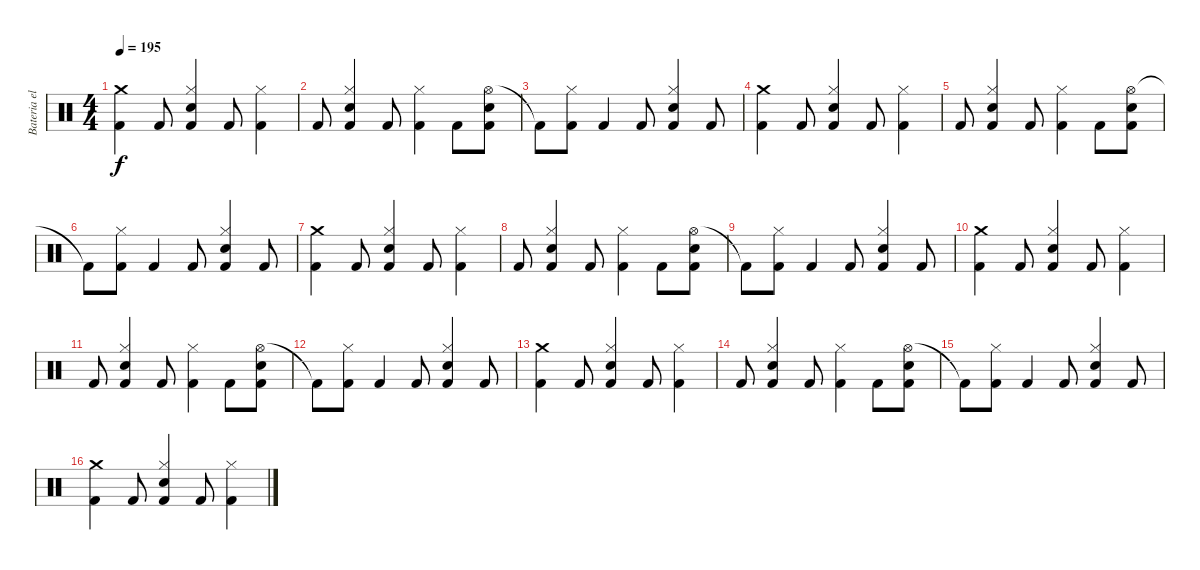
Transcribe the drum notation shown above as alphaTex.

\track ("Bateria electrica" "Bateria el") {instrument percussion}
\staff {score}
\articulation defaults
\ts (4 4)
\tempo 195
\clef neutral
\ks c
("Crash medium (hit)" "Kick (hit) 2").4{dy f} "Kick (hit) 2".8 ("Hi-Hat (closed)" "Kick (hit) 2" "Snare (hit) 2").4 "Kick (hit) 2".8 ("Hi-Hat (closed)" "Kick (hit) 2").4 |
"Kick (hit) 2".8 ("Hi-Hat (closed)" "Kick (hit) 2" "Snare (hit) 2").4 "Kick (hit) 2".8 ("Hi-Hat (closed)" "Kick (hit) 2").4 "Kick (hit) 2".8 ("Hi-Hat (open)" "Kick (hit) 2" "Snare (hit) 2").8 |
"Kick (hit) 2"{t}.8 ("Hi-Hat (closed)" "Kick (hit) 2").8 "Kick (hit) 2".4 "Kick (hit) 2".8 ("Hi-Hat (closed)" "Kick (hit) 2" "Snare (hit) 2").4 "Kick (hit) 2".8 |
("Crash medium (hit)" "Kick (hit) 2").4 "Kick (hit) 2".8 ("Hi-Hat (closed)" "Kick (hit) 2" "Snare (hit) 2").4 "Kick (hit) 2".8 ("Hi-Hat (closed)" "Kick (hit) 2").4 |
"Kick (hit) 2".8 ("Hi-Hat (closed)" "Kick (hit) 2" "Snare (hit) 2").4 "Kick (hit) 2".8 ("Hi-Hat (closed)" "Kick (hit) 2").4 "Kick (hit) 2".8 ("Hi-Hat (open)" "Kick (hit) 2" "Snare (hit) 2").8 |
"Kick (hit) 2"{t}.8 ("Hi-Hat (closed)" "Kick (hit) 2").8 "Kick (hit) 2".4 "Kick (hit) 2".8 ("Hi-Hat (closed)" "Kick (hit) 2" "Snare (hit) 2").4 "Kick (hit) 2".8 |
("Crash medium (hit)" "Kick (hit) 2").4 "Kick (hit) 2".8 ("Hi-Hat (closed)" "Kick (hit) 2" "Snare (hit) 2").4 "Kick (hit) 2".8 ("Hi-Hat (closed)" "Kick (hit) 2").4 |
"Kick (hit) 2".8 ("Hi-Hat (closed)" "Kick (hit) 2" "Snare (hit) 2").4 "Kick (hit) 2".8 ("Hi-Hat (closed)" "Kick (hit) 2").4 "Kick (hit) 2".8 ("Hi-Hat (open)" "Kick (hit) 2" "Snare (hit) 2").8 |
"Kick (hit) 2"{t}.8 ("Hi-Hat (closed)" "Kick (hit) 2").8 "Kick (hit) 2".4 "Kick (hit) 2".8 ("Hi-Hat (closed)" "Kick (hit) 2" "Snare (hit) 2").4 "Kick (hit) 2".8 |
("Crash medium (hit)" "Kick (hit) 2").4 "Kick (hit) 2".8 ("Hi-Hat (closed)" "Kick (hit) 2" "Snare (hit) 2").4 "Kick (hit) 2".8 ("Hi-Hat (closed)" "Kick (hit) 2").4 |
"Kick (hit) 2".8 ("Hi-Hat (closed)" "Kick (hit) 2" "Snare (hit) 2").4 "Kick (hit) 2".8 ("Hi-Hat (closed)" "Kick (hit) 2").4 "Kick (hit) 2".8 ("Hi-Hat (open)" "Kick (hit) 2" "Snare (hit) 2").8 |
"Kick (hit) 2"{t}.8 ("Hi-Hat (closed)" "Kick (hit) 2").8 "Kick (hit) 2".4 "Kick (hit) 2".8 ("Hi-Hat (closed)" "Kick (hit) 2" "Snare (hit) 2").4 "Kick (hit) 2".8 |
("Crash medium (hit)" "Kick (hit) 2").4 "Kick (hit) 2".8 ("Hi-Hat (closed)" "Kick (hit) 2" "Snare (hit) 2").4 "Kick (hit) 2".8 ("Hi-Hat (closed)" "Kick (hit) 2").4 |
"Kick (hit) 2".8 ("Hi-Hat (closed)" "Kick (hit) 2" "Snare (hit) 2").4 "Kick (hit) 2".8 ("Hi-Hat (closed)" "Kick (hit) 2").4 "Kick (hit) 2".8 ("Hi-Hat (open)" "Kick (hit) 2" "Snare (hit) 2").8 |
"Kick (hit) 2"{t}.8 ("Hi-Hat (closed)" "Kick (hit) 2").8 "Kick (hit) 2".4 "Kick (hit) 2".8 ("Hi-Hat (closed)" "Kick (hit) 2" "Snare (hit) 2").4 "Kick (hit) 2".8 |
("Crash medium (hit)" "Kick (hit) 2").4 "Kick (hit) 2".8 ("Hi-Hat (closed)" "Kick (hit) 2" "Snare (hit) 2").4 "Kick (hit) 2".8 ("Hi-Hat (closed)" "Kick (hit) 2").4
